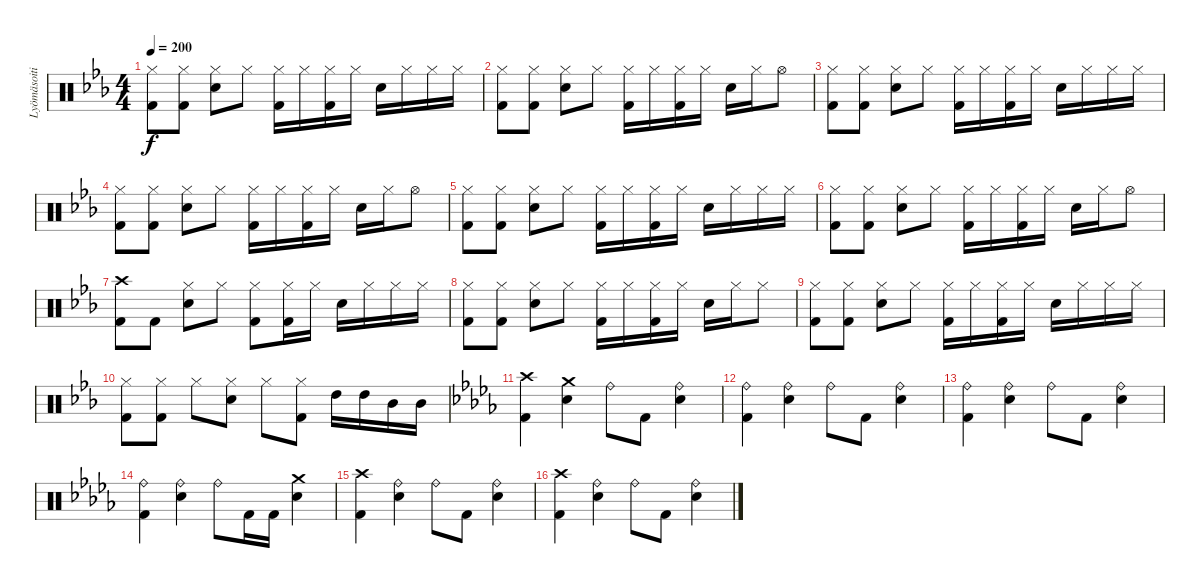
\track ("Lyömäsoitin" "Lyömäsoiti") {instrument percussion}
\staff {score}
\articulation defaults
\ts (4 4)
\tempo 200
\clef neutral
\ks eb
("Hi-Hat (closed)" "Kick (hit) 2").8{dy f} ("Hi-Hat (closed)" "Kick (hit) 2").8 ("Hi-Hat (closed)" "Snare (hit) 2").8 "Hi-Hat (closed)".8 ("Hi-Hat (closed)" "Kick (hit) 2").16 "Hi-Hat (closed)".16 ("Hi-Hat (closed)" "Kick (hit) 2").16 "Hi-Hat (closed)".16 "Snare (hit) 2".16 "Hi-Hat (closed)".16 "Hi-Hat (closed)".16 "Hi-Hat (closed)".16 |
("Hi-Hat (closed)" "Kick (hit) 2").8 ("Hi-Hat (closed)" "Kick (hit) 2").8 ("Hi-Hat (closed)" "Snare (hit) 2").8 "Hi-Hat (closed)".8 ("Hi-Hat (closed)" "Kick (hit) 2").16 "Hi-Hat (closed)".16 ("Hi-Hat (closed)" "Kick (hit) 2").16 "Hi-Hat (closed)".16 "Snare (hit) 2".16 "Hi-Hat (closed)".16 "Hi-Hat (open)".8 |
("Hi-Hat (closed)" "Kick (hit) 2").8 ("Hi-Hat (closed)" "Kick (hit) 2").8 ("Hi-Hat (closed)" "Snare (hit) 2").8 "Hi-Hat (closed)".8 ("Hi-Hat (closed)" "Kick (hit) 2").16 "Hi-Hat (closed)".16 ("Hi-Hat (closed)" "Kick (hit) 2").16 "Hi-Hat (closed)".16 "Snare (hit) 2".16 "Hi-Hat (closed)".16 "Hi-Hat (closed)".16 "Hi-Hat (closed)".16 |
("Hi-Hat (closed)" "Kick (hit) 2").8 ("Hi-Hat (closed)" "Kick (hit) 2").8 ("Hi-Hat (closed)" "Snare (hit) 2").8 "Hi-Hat (closed)".8 ("Hi-Hat (closed)" "Kick (hit) 2").16 "Hi-Hat (closed)".16 ("Hi-Hat (closed)" "Kick (hit) 2").16 "Hi-Hat (closed)".16 "Snare (hit) 2".16 "Hi-Hat (closed)".16 "Hi-Hat (open)".8 |
("Hi-Hat (closed)" "Kick (hit) 2").8 ("Hi-Hat (closed)" "Kick (hit) 2").8 ("Hi-Hat (closed)" "Snare (hit) 2").8 "Hi-Hat (closed)".8 ("Hi-Hat (closed)" "Kick (hit) 2").16 "Hi-Hat (closed)".16 ("Hi-Hat (closed)" "Kick (hit) 2").16 "Hi-Hat (closed)".16 "Snare (hit) 2".16 "Hi-Hat (closed)".16 "Hi-Hat (closed)".16 "Hi-Hat (closed)".16 |
("Hi-Hat (closed)" "Kick (hit) 2").8 ("Hi-Hat (closed)" "Kick (hit) 2").8 ("Hi-Hat (closed)" "Snare (hit) 2").8 "Hi-Hat (closed)".8 ("Hi-Hat (closed)" "Kick (hit) 2").16 "Hi-Hat (closed)".16 ("Hi-Hat (closed)" "Kick (hit) 2").16 "Hi-Hat (closed)".16 "Snare (hit) 2".16 "Hi-Hat (closed)".16 "Hi-Hat (open)".8 |
("Crash high (hit)" "Kick (hit) 2").8 "Kick (hit) 2".8 ("Hi-Hat (closed)" "Snare (hit) 2").8 "Hi-Hat (closed)".8 ("Hi-Hat (closed)" "Kick (hit) 2").8 ("Hi-Hat (closed)" "Kick (hit) 2").16 "Hi-Hat (closed)".16 "Snare (hit) 2".16 "Hi-Hat (closed)".16 "Hi-Hat (closed)".16 "Hi-Hat (closed)".16 |
("Hi-Hat (closed)" "Kick (hit) 2").8 ("Hi-Hat (closed)" "Kick (hit) 2").8 ("Hi-Hat (closed)" "Snare (hit) 2").8 "Hi-Hat (closed)".8 ("Hi-Hat (closed)" "Kick (hit) 2").16 "Hi-Hat (closed)".16 ("Hi-Hat (closed)" "Kick (hit) 2").16 "Hi-Hat (closed)".16 "Snare (hit) 2".16 "Hi-Hat (closed)".16 "Hi-Hat (closed)".8 |
("Hi-Hat (closed)" "Kick (hit) 2").8 ("Hi-Hat (closed)" "Kick (hit) 2").8 ("Hi-Hat (closed)" "Snare (hit) 2").8 "Hi-Hat (closed)".8 ("Hi-Hat (closed)" "Kick (hit) 2").16 "Hi-Hat (closed)".16 ("Hi-Hat (closed)" "Kick (hit) 2").16 "Hi-Hat (closed)".16 "Snare (hit) 2".16 "Hi-Hat (closed)".16 "Hi-Hat (closed)".16 "Hi-Hat (closed)".16 |
("Hi-Hat (closed)" "Kick (hit) 2").8 ("Hi-Hat (closed)" "Kick (hit) 2").8 "Hi-Hat (closed)".8 ("Hi-Hat (closed)" "Snare (hit) 2").8 "Hi-Hat (closed)".8 ("Hi-Hat (closed)" "Kick (hit) 2").8 "High Tom (hit)".16 "High Tom (hit)".16 "Mid Tom (hit)".16 "Mid Tom (hit)".16 |
\ks db
("Crash high (hit)" "Kick (hit) 2").4 ("Crash medium (hit)" "Snare (hit) 2").4 "Ride (bell)".8 "Kick (hit) 2".8 ("Ride (bell)" "Snare (hit) 2").4 |
("Ride (bell)" "Kick (hit) 2").4 ("Ride (bell)" "Snare (hit) 2").4 "Ride (bell)".8 "Kick (hit) 2".8 ("Ride (bell)" "Snare (hit) 2").4 |
("Ride (bell)" "Kick (hit) 2").4 ("Ride (bell)" "Snare (hit) 2").4 "Ride (bell)".8 "Kick (hit) 2".8 ("Ride (bell)" "Snare (hit) 2").4 |
("Ride (bell)" "Kick (hit) 2").4 ("Ride (bell)" "Snare (hit) 2").4 "Ride (bell)".8 "Kick (hit) 2".16 "Kick (hit) 2".16 ("Crash medium (hit)" "Snare (hit) 2").4 |
("Crash high (hit)" "Kick (hit) 2").4 ("Ride (bell)" "Snare (hit) 2").4 "Ride (bell)".8 "Kick (hit) 2".8 ("Ride (bell)" "Snare (hit) 2").4 |
("Crash high (hit)" "Kick (hit) 2").4 ("Ride (bell)" "Snare (hit) 2").4 "Ride (bell)".8 "Kick (hit) 2".8 ("Ride (bell)" "Snare (hit) 2").4
